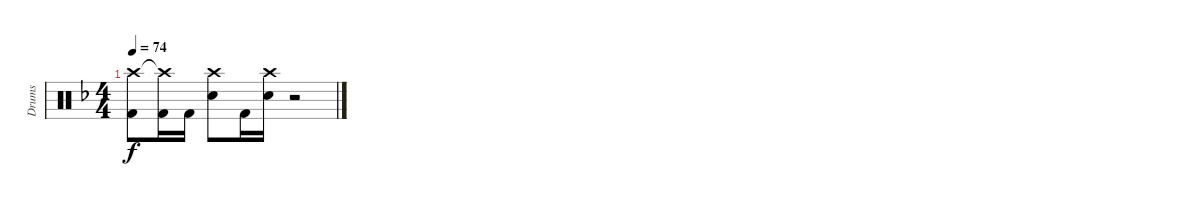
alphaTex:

\track ("Drums" "Drums") {instrument percussion}
\staff {score}
\articulation defaults
\ts (4 4)
\tempo 74
\clef neutral
\ks dminor
("Crash high (hit)" "Kick (hit) 2").8{dy f} ("Crash high (hit)"{t} "Kick (hit) 2").16 "Kick (hit) 2".16 ("Crash high (hit)" "Snare (hit) 2").8 "Kick (hit) 2".16 ("Crash high (hit)" "Snare (hit) 2").16 r.2
